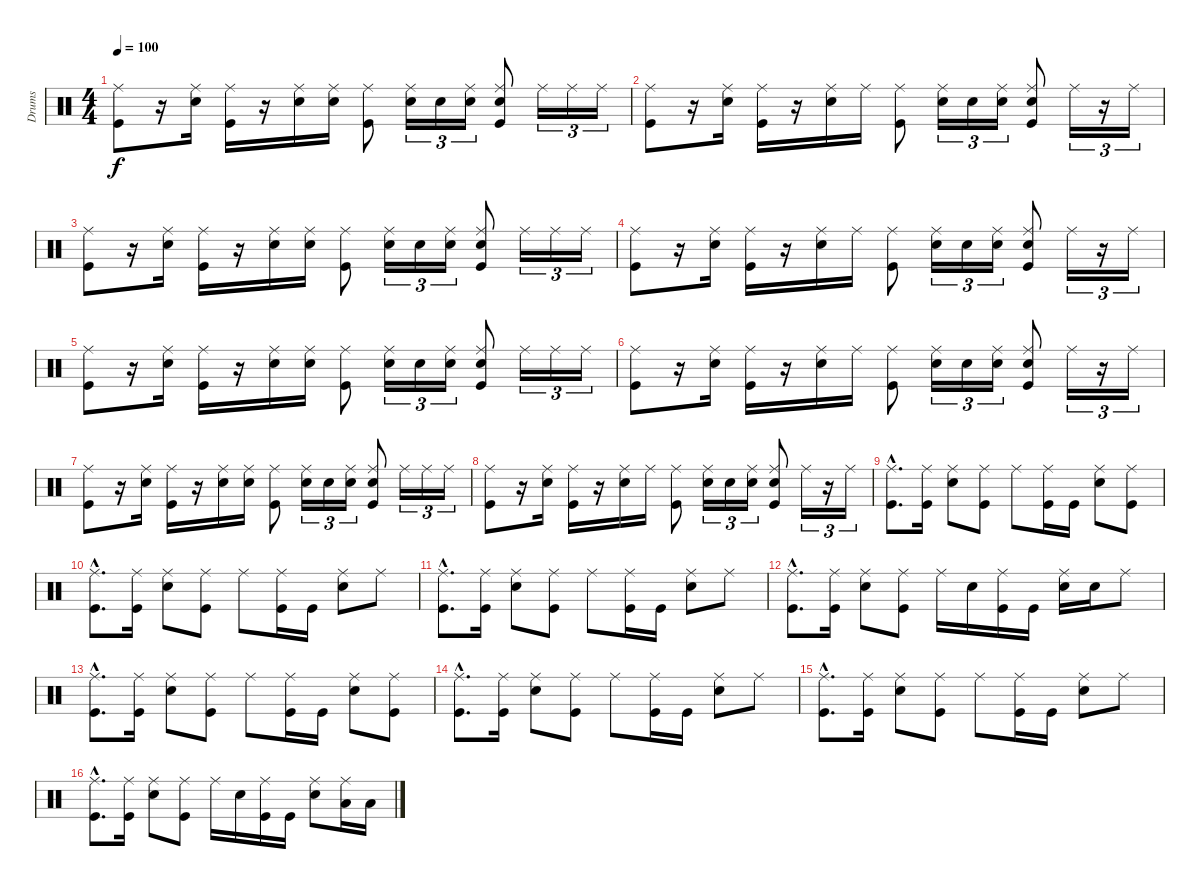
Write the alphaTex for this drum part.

\track ("Drums" "Drums") {instrument percussion}
\staff {score}
\articulation defaults
\ts (4 4)
\tempo 100
\clef neutral
\ks c
("Kick (hit)" "Ride (middle)").8{dy f volume 9} r.16 ("Snare (hit) 2" "Ride (middle)").16 ("Kick (hit)" "Ride (middle)").16 r.16 ("Snare (hit) 2" "Ride (middle)").16 ("Snare (hit) 2" "Ride (middle)").16 ("Kick (hit)" "Ride (middle)").8 ("Snare (hit) 2" "Ride (middle)").16{tu (3 2)} "Snare (hit) 2".16{tu (3 2)} ("Snare (hit) 2" "Ride (middle)").16{tu (3 2)} ("Kick (hit)" "Snare (hit) 2" "Ride (middle)").8 "Ride (middle)".16{tu (3 2)} "Ride (middle)".16{tu (3 2)} "Ride (middle)".16{tu (3 2)} |
("Kick (hit)" "Ride (middle)").8 r.16 ("Snare (hit) 2" "Ride (middle)").16 ("Kick (hit)" "Ride (middle)").16 r.16 ("Snare (hit) 2" "Ride (middle)").16 "Ride (middle)".16 ("Kick (hit)" "Ride (middle)").8 ("Snare (hit) 2" "Ride (middle)").16{tu (3 2)} "Snare (hit) 2".16{tu (3 2)} ("Snare (hit) 2" "Ride (middle)").16{tu (3 2)} ("Kick (hit)" "Snare (hit) 2" "Ride (middle)").8 "Ride (middle)".16{tu (3 2)} r.16{tu (3 2)} "Ride (middle)".16{tu (3 2)} |
("Kick (hit)" "Ride (middle)").8{volume 9} r.16 ("Snare (hit) 2" "Ride (middle)").16 ("Kick (hit)" "Ride (middle)").16 r.16 ("Snare (hit) 2" "Ride (middle)").16 ("Snare (hit) 2" "Ride (middle)").16 ("Kick (hit)" "Ride (middle)").8 ("Snare (hit) 2" "Ride (middle)").16{tu (3 2)} "Snare (hit) 2".16{tu (3 2)} ("Snare (hit) 2" "Ride (middle)").16{tu (3 2)} ("Kick (hit)" "Snare (hit) 2" "Ride (middle)").8 "Ride (middle)".16{tu (3 2)} "Ride (middle)".16{tu (3 2)} "Ride (middle)".16{tu (3 2)} |
("Kick (hit)" "Ride (middle)").8 r.16 ("Snare (hit) 2" "Ride (middle)").16 ("Kick (hit)" "Ride (middle)").16 r.16 ("Snare (hit) 2" "Ride (middle)").16 "Ride (middle)".16 ("Kick (hit)" "Ride (middle)").8 ("Snare (hit) 2" "Ride (middle)").16{tu (3 2)} "Snare (hit) 2".16{tu (3 2)} ("Snare (hit) 2" "Ride (middle)").16{tu (3 2)} ("Kick (hit)" "Snare (hit) 2" "Ride (middle)").8 "Ride (middle)".16{tu (3 2)} r.16{tu (3 2)} "Ride (middle)".16{tu (3 2)} |
("Kick (hit)" "Ride (middle)").8{volume 9} r.16 ("Snare (hit) 2" "Ride (middle)").16 ("Kick (hit)" "Ride (middle)").16 r.16 ("Snare (hit) 2" "Ride (middle)").16 ("Snare (hit) 2" "Ride (middle)").16 ("Kick (hit)" "Ride (middle)").8 ("Snare (hit) 2" "Ride (middle)").16{tu (3 2)} "Snare (hit) 2".16{tu (3 2)} ("Snare (hit) 2" "Ride (middle)").16{tu (3 2)} ("Kick (hit)" "Snare (hit) 2" "Ride (middle)").8 "Ride (middle)".16{tu (3 2)} "Ride (middle)".16{tu (3 2)} "Ride (middle)".16{tu (3 2)} |
("Kick (hit)" "Ride (middle)").8 r.16 ("Snare (hit) 2" "Ride (middle)").16 ("Kick (hit)" "Ride (middle)").16 r.16 ("Snare (hit) 2" "Ride (middle)").16 "Ride (middle)".16 ("Kick (hit)" "Ride (middle)").8 ("Snare (hit) 2" "Ride (middle)").16{tu (3 2)} "Snare (hit) 2".16{tu (3 2)} ("Snare (hit) 2" "Ride (middle)").16{tu (3 2)} ("Kick (hit)" "Snare (hit) 2" "Ride (middle)").8 "Ride (middle)".16{tu (3 2)} r.16{tu (3 2)} "Ride (middle)".16{tu (3 2)} |
("Kick (hit)" "Ride (middle)").8{volume 9} r.16 ("Snare (hit) 2" "Ride (middle)").16 ("Kick (hit)" "Ride (middle)").16 r.16 ("Snare (hit) 2" "Ride (middle)").16 ("Snare (hit) 2" "Ride (middle)").16 ("Kick (hit)" "Ride (middle)").8 ("Snare (hit) 2" "Ride (middle)").16{tu (3 2)} "Snare (hit) 2".16{tu (3 2)} ("Snare (hit) 2" "Ride (middle)").16{tu (3 2)} ("Kick (hit)" "Snare (hit) 2" "Ride (middle)").8 "Ride (middle)".16{tu (3 2)} "Ride (middle)".16{tu (3 2)} "Ride (middle)".16{tu (3 2)} |
("Kick (hit)" "Ride (middle)").8 r.16 ("Snare (hit) 2" "Ride (middle)").16 ("Kick (hit)" "Ride (middle)").16 r.16 ("Snare (hit) 2" "Ride (middle)").16 "Ride (middle)".16 ("Kick (hit)" "Ride (middle)").8 ("Snare (hit) 2" "Ride (middle)").16{tu (3 2)} "Snare (hit) 2".16{tu (3 2)} ("Snare (hit) 2" "Ride (middle)").16{tu (3 2)} ("Kick (hit)" "Snare (hit) 2" "Ride (middle)").8 "Ride (middle)".16{tu (3 2)} r.16{tu (3 2)} "Ride (middle)".16{tu (3 2)} |
("Kick (hit)"{hac} "Ride (middle)"{hac}).8{d volume 13} ("Kick (hit)" "Ride (middle)").16 ("Snare (hit) 2" "Ride (middle)").8 ("Kick (hit)" "Ride (middle)").8 "Ride (middle)".8 ("Kick (hit)" "Ride (middle)").16 "Kick (hit)".16 ("Snare (hit) 2" "Ride (middle)").8 ("Kick (hit)" "Ride (middle)").8 |
("Kick (hit)"{hac} "Ride (middle)"{hac}).8{d} ("Kick (hit)" "Ride (middle)").16 ("Snare (hit) 2" "Ride (middle)").8 ("Kick (hit)" "Ride (middle)").8 "Ride (middle)".8 ("Kick (hit)" "Ride (middle)").16 "Kick (hit)".16 ("Snare (hit) 2" "Ride (middle)").8 "Ride (middle)".8 |
("Kick (hit)"{hac} "Ride (middle)"{hac}).8{d} ("Kick (hit)" "Ride (middle)").16 ("Snare (hit) 2" "Ride (middle)").8 ("Kick (hit)" "Ride (middle)").8 "Ride (middle)".8 ("Kick (hit)" "Ride (middle)").16 "Kick (hit)".16 ("Snare (hit) 2" "Ride (middle)").8 "Ride (middle)".8 |
("Kick (hit)"{hac} "Ride (middle)"{hac}).8{d} ("Kick (hit)" "Ride (middle)").16 ("Snare (hit) 2" "Ride (middle)").8 ("Kick (hit)" "Ride (middle)").8 "Ride (middle)".16 "Snare (hit) 2".16 ("Kick (hit)" "Ride (middle)").16 "Kick (hit)".16 ("Snare (hit) 2" "Ride (middle)").16 "Snare (hit) 2".16 "Ride (middle)".8 |
("Kick (hit)"{hac} "Ride (middle)"{hac}).8{d volume 13} ("Kick (hit)" "Ride (middle)").16 ("Snare (hit) 2" "Ride (middle)").8 ("Kick (hit)" "Ride (middle)").8 "Ride (middle)".8 ("Kick (hit)" "Ride (middle)").16 "Kick (hit)".16 ("Snare (hit) 2" "Ride (middle)").8 ("Kick (hit)" "Ride (middle)").8 |
("Kick (hit)"{hac} "Ride (middle)"{hac}).8{d} ("Kick (hit)" "Ride (middle)").16 ("Snare (hit) 2" "Ride (middle)").8 ("Kick (hit)" "Ride (middle)").8 "Ride (middle)".8 ("Kick (hit)" "Ride (middle)").16 "Kick (hit)".16 ("Snare (hit) 2" "Ride (middle)").8 "Ride (middle)".8 |
("Kick (hit)"{hac} "Ride (middle)"{hac}).8{d} ("Kick (hit)" "Ride (middle)").16 ("Snare (hit) 2" "Ride (middle)").8 ("Kick (hit)" "Ride (middle)").8 "Ride (middle)".8 ("Kick (hit)" "Ride (middle)").16 "Kick (hit)".16 ("Snare (hit) 2" "Ride (middle)").8 "Ride (middle)".8 |
("Kick (hit)"{hac} "Ride (middle)"{hac}).8{d} ("Kick (hit)" "Ride (middle)").16 ("Snare (hit) 2" "Ride (middle)").8 ("Kick (hit)" "Ride (middle)").8 "Ride (middle)".16 "Snare (hit) 2".16 ("Kick (hit)" "Ride (middle)").16 "Kick (hit)".16 ("Snare (hit) 2" "Ride (middle)").8 ("Low Tom (hit)" "Ride (middle)").16 "Low Tom (hit)".16
